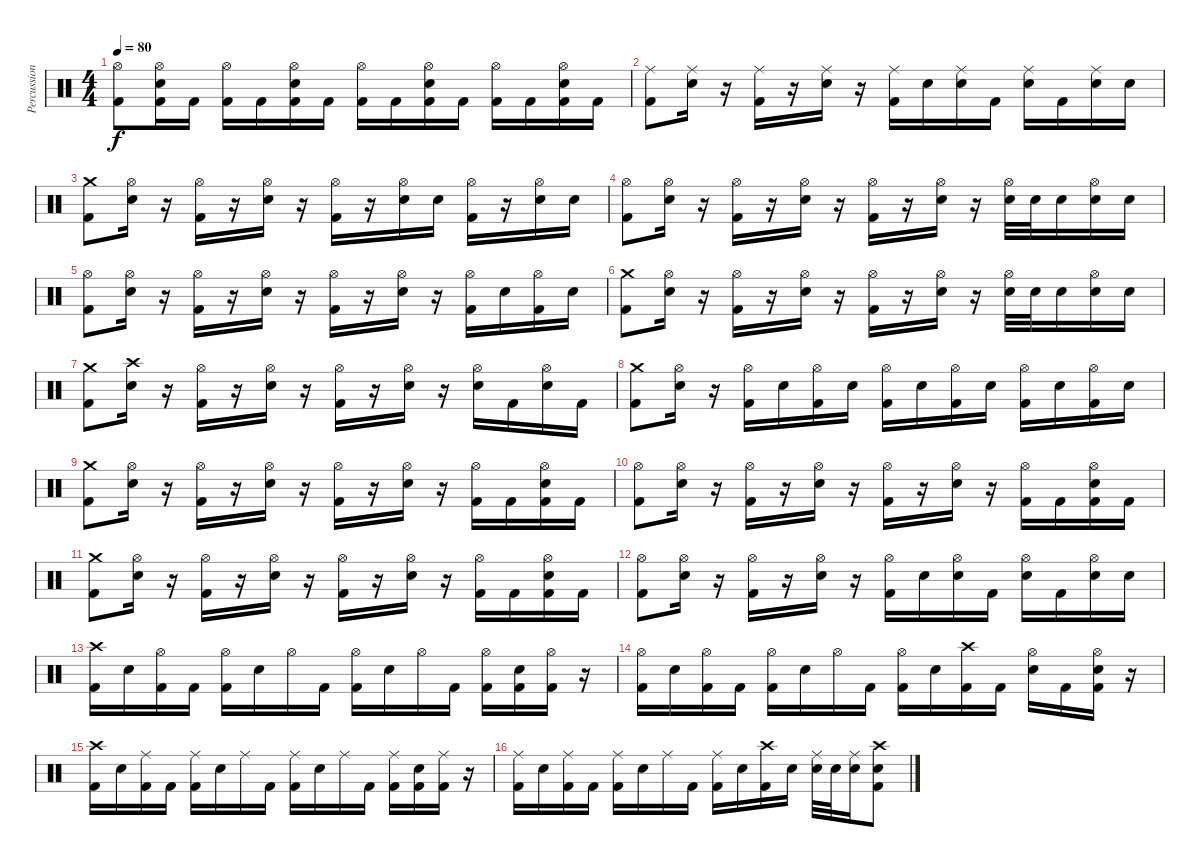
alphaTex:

\track ("Percussion" "Percussion") {instrument percussion}
\staff {score}
\articulation defaults
\ts (4 4)
\tempo 80
\clef neutral
\ks c
("Hi-Hat (open)" "Kick (hit) 2").8{dy f} ("Hi-Hat (open)" "Electric Snare (hit)" "Kick (hit) 2").16 "Kick (hit) 2".16 ("Hi-Hat (open)" "Kick (hit) 2").16 "Kick (hit) 2".16 ("Hi-Hat (open)" "Electric Snare (hit)" "Kick (hit) 2").16 "Kick (hit) 2".16 ("Hi-Hat (open)" "Kick (hit) 2").16 "Kick (hit) 2".16 ("Hi-Hat (open)" "Electric Snare (hit)" "Kick (hit) 2").16 "Kick (hit) 2".16 ("Hi-Hat (open)" "Kick (hit) 2").16 "Kick (hit) 2".16 ("Hi-Hat (open)" "Electric Snare (hit)" "Kick (hit) 2").16 "Kick (hit) 2".16 |
("Ride (middle)" "Kick (hit) 2").8 ("Ride (middle)" "Electric Snare (hit)").16 r.16 ("Ride (middle)" "Kick (hit) 2").16 r.16 ("Ride (middle)" "Electric Snare (hit)").16 r.16 ("Ride (middle)" "Kick (hit) 2").16 "Electric Snare (hit)".16 ("Ride (middle)" "Electric Snare (hit)").16 "Kick (hit) 2".16 ("Ride (middle)" "Electric Snare (hit)").16 "Kick (hit) 2".16 ("Ride (middle)" "Electric Snare (hit)").16 "Electric Snare (hit)".16 |
("Crash medium (hit)" "Kick (hit) 2").8 ("Hi-Hat (open)" "Electric Snare (hit)").16 r.16 ("Hi-Hat (open)" "Kick (hit) 2").16 r.16 ("Hi-Hat (open)" "Electric Snare (hit)").16 r.16 ("Hi-Hat (open)" "Kick (hit) 2").16 r.16 ("Hi-Hat (open)" "Electric Snare (hit)").16 "Electric Snare (hit)".16 ("Hi-Hat (open)" "Kick (hit) 2").16 r.16 ("Hi-Hat (open)" "Electric Snare (hit)").16 "Electric Snare (hit)".16 |
("Hi-Hat (open)" "Kick (hit) 2").8 ("Hi-Hat (open)" "Electric Snare (hit)").16 r.16 ("Hi-Hat (open)" "Kick (hit) 2").16 r.16 ("Hi-Hat (open)" "Electric Snare (hit)").16 r.16 ("Hi-Hat (open)" "Kick (hit) 2").16 r.16 ("Hi-Hat (open)" "Electric Snare (hit)").16 r.16 ("Hi-Hat (open)" "Electric Snare (hit)").32 "Electric Snare (hit)".32 "Electric Snare (hit)".16 ("Hi-Hat (open)" "Electric Snare (hit)").16 "Electric Snare (hit)".16 |
("Hi-Hat (open)" "Kick (hit) 2").8 ("Hi-Hat (open)" "Electric Snare (hit)").16 r.16 ("Hi-Hat (open)" "Kick (hit) 2").16 r.16 ("Hi-Hat (open)" "Electric Snare (hit)").16 r.16 ("Hi-Hat (open)" "Kick (hit) 2").16 r.16 ("Hi-Hat (open)" "Electric Snare (hit)").16 r.16 ("Hi-Hat (open)" "Kick (hit) 2").16 "Electric Snare (hit)".16 ("Hi-Hat (open)" "Kick (hit) 2").16 "Electric Snare (hit)".16 |
("Crash medium (hit)" "Kick (hit) 2").8 ("Hi-Hat (open)" "Electric Snare (hit)").16 r.16 ("Hi-Hat (open)" "Kick (hit) 2").16 r.16 ("Hi-Hat (open)" "Electric Snare (hit)").16 r.16 ("Hi-Hat (open)" "Kick (hit) 2").16 r.16 ("Hi-Hat (open)" "Electric Snare (hit)").16 r.16 ("Hi-Hat (open)" "Electric Snare (hit)").32 "Electric Snare (hit)".32 "Electric Snare (hit)".16 ("Hi-Hat (open)" "Electric Snare (hit)").16 "Electric Snare (hit)".16 |
("Crash medium (hit)" "Kick (hit) 2").8 ("Crash high (hit)" "Electric Snare (hit)").16 r.16 ("Hi-Hat (open)" "Kick (hit) 2").16 r.16 ("Hi-Hat (open)" "Electric Snare (hit)").16 r.16 ("Hi-Hat (open)" "Kick (hit) 2").16 r.16 ("Hi-Hat (open)" "Electric Snare (hit)").16 r.16 ("Hi-Hat (open)" "Electric Snare (hit)").16 "Kick (hit) 2".16 ("Hi-Hat (open)" "Electric Snare (hit)").16 "Kick (hit) 2".16 |
("Crash medium (hit)" "Kick (hit) 2").8 ("Hi-Hat (open)" "Electric Snare (hit)").16 r.16 ("Hi-Hat (open)" "Kick (hit) 2").16 "Electric Snare (hit)".16 ("Hi-Hat (open)" "Kick (hit) 2").16 "Electric Snare (hit)".16 ("Hi-Hat (open)" "Kick (hit) 2").16 "Electric Snare (hit)".16 ("Hi-Hat (open)" "Kick (hit) 2").16 "Electric Snare (hit)".16 ("Hi-Hat (open)" "Kick (hit) 2").16 "Electric Snare (hit)".16 ("Hi-Hat (open)" "Kick (hit) 2").16 "Electric Snare (hit)".16 |
("Crash medium (hit)" "Kick (hit) 2").8 ("Hi-Hat (open)" "Electric Snare (hit)").16 r.16 ("Hi-Hat (open)" "Kick (hit) 2").16 r.16 ("Hi-Hat (open)" "Electric Snare (hit)").16 r.16 ("Hi-Hat (open)" "Kick (hit) 2").16 r.16 ("Hi-Hat (open)" "Electric Snare (hit)").16 r.16 ("Hi-Hat (open)" "Kick (hit) 2").16 "Kick (hit) 2".16 ("Hi-Hat (open)" "Electric Snare (hit)" "Kick (hit) 2").16 "Kick (hit) 2".16 |
("Hi-Hat (open)" "Kick (hit) 2").8 ("Hi-Hat (open)" "Electric Snare (hit)").16 r.16 ("Hi-Hat (open)" "Kick (hit) 2").16 r.16 ("Hi-Hat (open)" "Electric Snare (hit)").16 r.16 ("Hi-Hat (open)" "Kick (hit) 2").16 r.16 ("Hi-Hat (open)" "Electric Snare (hit)").16 r.16 ("Hi-Hat (open)" "Kick (hit) 2").16 "Kick (hit) 2".16 ("Hi-Hat (open)" "Electric Snare (hit)" "Kick (hit) 2").16 "Kick (hit) 2".16 |
("Crash medium (hit)" "Kick (hit) 2").8 ("Hi-Hat (open)" "Electric Snare (hit)").16 r.16 ("Hi-Hat (open)" "Kick (hit) 2").16 r.16 ("Hi-Hat (open)" "Electric Snare (hit)").16 r.16 ("Hi-Hat (open)" "Kick (hit) 2").16 r.16 ("Hi-Hat (open)" "Electric Snare (hit)").16 r.16 ("Hi-Hat (open)" "Kick (hit) 2").16 "Kick (hit) 2".16 ("Hi-Hat (open)" "Electric Snare (hit)" "Kick (hit) 2").16 "Kick (hit) 2".16 |
("Hi-Hat (open)" "Kick (hit) 2").8 ("Hi-Hat (open)" "Electric Snare (hit)").16 r.16 ("Hi-Hat (open)" "Kick (hit) 2").16 r.16 ("Hi-Hat (open)" "Electric Snare (hit)").16 r.16 ("Hi-Hat (open)" "Kick (hit) 2").16 "Electric Snare (hit)".16 ("Hi-Hat (open)" "Electric Snare (hit)").16 "Kick (hit) 2".16 ("Hi-Hat (open)" "Electric Snare (hit)").16 "Kick (hit) 2".16 ("Hi-Hat (open)" "Electric Snare (hit)").16 "Electric Snare (hit)".16 |
("Crash high (hit)" "Kick (hit) 2").16 "Electric Snare (hit)".16 ("Hi-Hat (open)" "Kick (hit) 2").16 "Kick (hit) 2".16 ("Hi-Hat (open)" "Kick (hit) 2").16 "Electric Snare (hit)".16 "Hi-Hat (open)".16 "Kick (hit) 2".16 ("Hi-Hat (open)" "Kick (hit) 2").16 "Electric Snare (hit)".16 "Hi-Hat (open)".16 "Kick (hit) 2".16 ("Hi-Hat (open)" "Kick (hit) 2").16 ("Electric Snare (hit)" "Kick (hit) 2").16 ("Hi-Hat (open)" "Kick (hit) 2").16 r.16 |
("Hi-Hat (open)" "Kick (hit) 2").16 "Electric Snare (hit)".16 ("Hi-Hat (open)" "Kick (hit) 2").16 "Kick (hit) 2".16 ("Hi-Hat (open)" "Kick (hit) 2").16 "Electric Snare (hit)".16 "Hi-Hat (open)".16 "Kick (hit) 2".16 ("Hi-Hat (open)" "Kick (hit) 2").16 "Electric Snare (hit)".16 ("Crash high (hit)" "Kick (hit) 2").16 "Kick (hit) 2".16 ("Hi-Hat (open)" "Electric Snare (hit)").16 "Kick (hit) 2".16 ("Hi-Hat (open)" "Electric Snare (hit)" "Kick (hit) 2").16 r.16 |
("Crash high (hit)" "Kick (hit) 2").16 "Electric Snare (hit)".16 ("Ride (middle)" "Kick (hit) 2").16 "Kick (hit) 2".16 ("Ride (middle)" "Kick (hit) 2").16 "Electric Snare (hit)".16 "Ride (middle)".16 "Kick (hit) 2".16 ("Ride (middle)" "Kick (hit) 2").16 "Electric Snare (hit)".16 "Ride (middle)".16 "Kick (hit) 2".16 ("Ride (middle)" "Kick (hit) 2").16 ("Electric Snare (hit)" "Kick (hit) 2").16 ("Ride (middle)" "Kick (hit) 2").16 r.16 |
("Ride (middle)" "Kick (hit) 2").16 "Electric Snare (hit)".16 ("Ride (middle)" "Kick (hit) 2").16 "Kick (hit) 2".16 ("Ride (middle)" "Kick (hit) 2").16 "Electric Snare (hit)".16 "Ride (middle)".16 "Kick (hit) 2".16 ("Ride (middle)" "Kick (hit) 2").16 "Electric Snare (hit)".16 ("Crash high (hit)" "Kick (hit) 2").16 "Electric Snare (hit)".16 ("Ride (middle)" "Electric Snare (hit)").32 "Electric Snare (hit)".32 ("Ride (middle)" "Electric Snare (hit)").16 ("Crash high (hit)" "Electric Snare (hit)" "Kick (hit) 2").8
